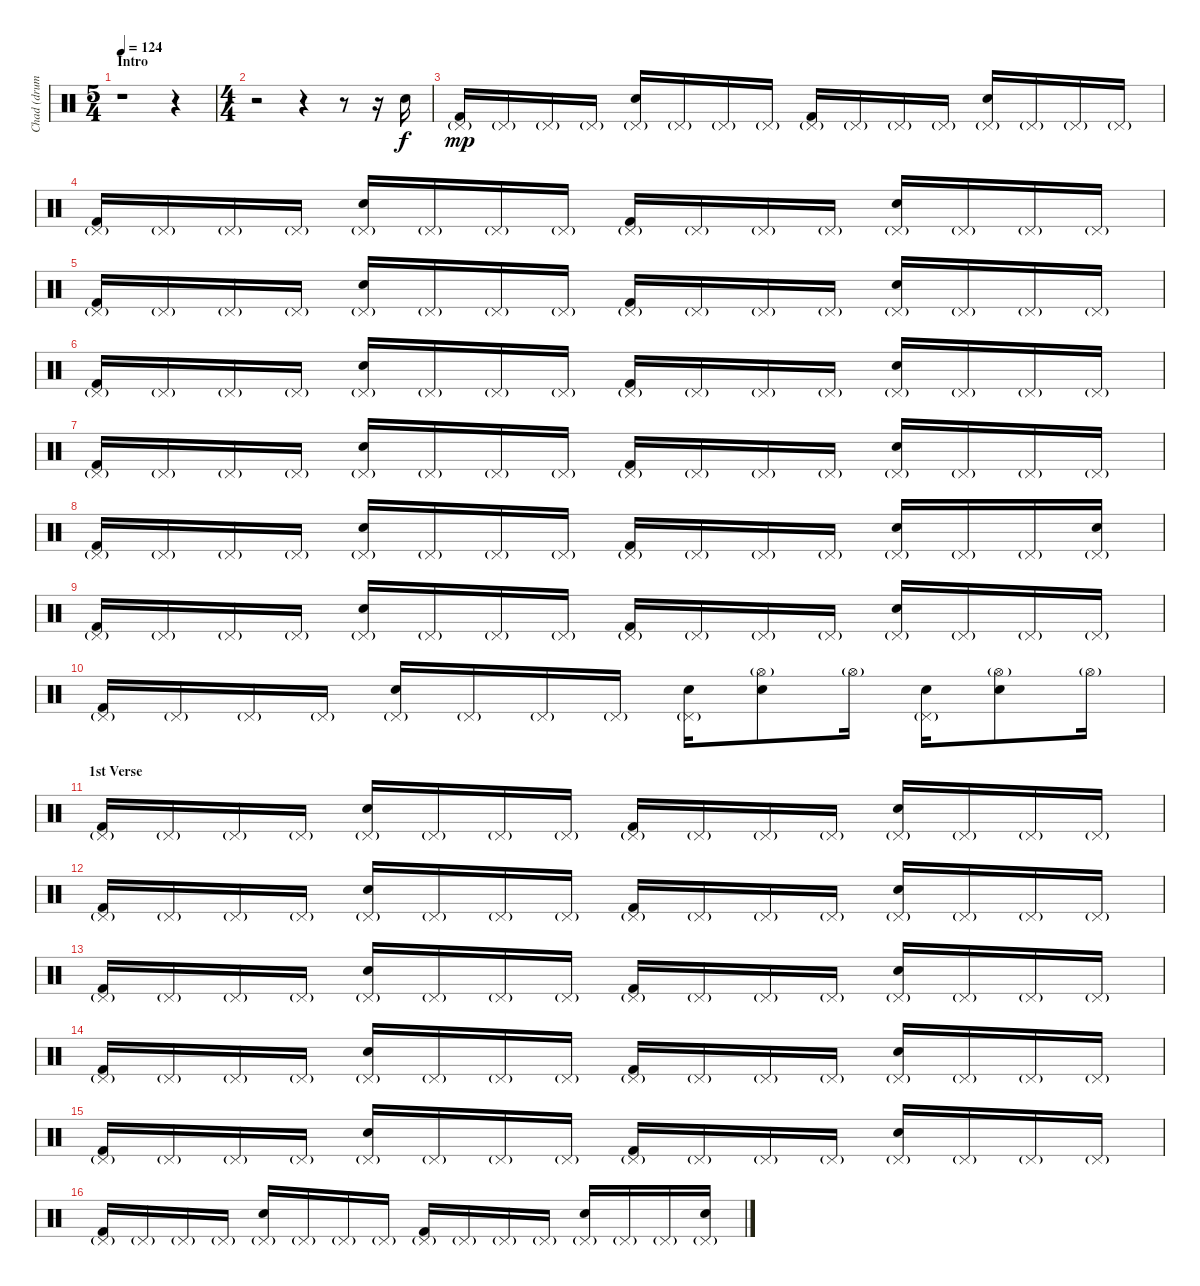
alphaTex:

\track ("Chad (drums)" "Chad (drum") {instrument percussion}
\staff {score}
\articulation defaults
\ts (5 4)
\section ("" "Intro")
\tempo 124
\tempo 110
\tempo 124
\clef neutral
\ks c
r.1{dy f} r.4 |
\ts (4 4)
r.2 r.4 r.8 r.16 "Electric Snare (hit)".16 |
("Kick (hit) 2" "Pedal Hi-Hat (hit)"{g}).16{dy mp} "Pedal Hi-Hat (hit)"{g}.16 "Pedal Hi-Hat (hit)"{g}.16 "Pedal Hi-Hat (hit)"{g}.16 ("Electric Snare (hit)" "Pedal Hi-Hat (hit)"{g}).16 "Pedal Hi-Hat (hit)"{g}.16 "Pedal Hi-Hat (hit)"{g}.16 "Pedal Hi-Hat (hit)"{g}.16 ("Kick (hit) 2" "Pedal Hi-Hat (hit)"{g}).16 "Pedal Hi-Hat (hit)"{g}.16 "Pedal Hi-Hat (hit)"{g}.16 "Pedal Hi-Hat (hit)"{g}.16 ("Electric Snare (hit)" "Pedal Hi-Hat (hit)"{g}).16 "Pedal Hi-Hat (hit)"{g}.16 "Pedal Hi-Hat (hit)"{g}.16 "Pedal Hi-Hat (hit)"{g}.16 |
("Kick (hit) 2" "Pedal Hi-Hat (hit)"{g}).16 "Pedal Hi-Hat (hit)"{g}.16 "Pedal Hi-Hat (hit)"{g}.16 "Pedal Hi-Hat (hit)"{g}.16 ("Electric Snare (hit)" "Pedal Hi-Hat (hit)"{g}).16 "Pedal Hi-Hat (hit)"{g}.16 "Pedal Hi-Hat (hit)"{g}.16 "Pedal Hi-Hat (hit)"{g}.16 ("Kick (hit) 2" "Pedal Hi-Hat (hit)"{g}).16 "Pedal Hi-Hat (hit)"{g}.16 "Pedal Hi-Hat (hit)"{g}.16 "Pedal Hi-Hat (hit)"{g}.16 ("Electric Snare (hit)" "Pedal Hi-Hat (hit)"{g}).16 "Pedal Hi-Hat (hit)"{g}.16 "Pedal Hi-Hat (hit)"{g}.16 "Pedal Hi-Hat (hit)"{g}.16 |
("Kick (hit) 2" "Pedal Hi-Hat (hit)"{g}).16 "Pedal Hi-Hat (hit)"{g}.16 "Pedal Hi-Hat (hit)"{g}.16 "Pedal Hi-Hat (hit)"{g}.16 ("Electric Snare (hit)" "Pedal Hi-Hat (hit)"{g}).16 "Pedal Hi-Hat (hit)"{g}.16 "Pedal Hi-Hat (hit)"{g}.16 "Pedal Hi-Hat (hit)"{g}.16 ("Kick (hit) 2" "Pedal Hi-Hat (hit)"{g}).16 "Pedal Hi-Hat (hit)"{g}.16 "Pedal Hi-Hat (hit)"{g}.16 "Pedal Hi-Hat (hit)"{g}.16 ("Electric Snare (hit)" "Pedal Hi-Hat (hit)"{g}).16 "Pedal Hi-Hat (hit)"{g}.16 "Pedal Hi-Hat (hit)"{g}.16 "Pedal Hi-Hat (hit)"{g}.16 |
("Kick (hit) 2" "Pedal Hi-Hat (hit)"{g}).16 "Pedal Hi-Hat (hit)"{g}.16 "Pedal Hi-Hat (hit)"{g}.16 "Pedal Hi-Hat (hit)"{g}.16 ("Electric Snare (hit)" "Pedal Hi-Hat (hit)"{g}).16 "Pedal Hi-Hat (hit)"{g}.16 "Pedal Hi-Hat (hit)"{g}.16 "Pedal Hi-Hat (hit)"{g}.16 ("Kick (hit) 2" "Pedal Hi-Hat (hit)"{g}).16 "Pedal Hi-Hat (hit)"{g}.16 "Pedal Hi-Hat (hit)"{g}.16 "Pedal Hi-Hat (hit)"{g}.16 ("Electric Snare (hit)" "Pedal Hi-Hat (hit)"{g}).16 "Pedal Hi-Hat (hit)"{g}.16 "Pedal Hi-Hat (hit)"{g}.16 "Pedal Hi-Hat (hit)"{g}.16 |
("Kick (hit) 2" "Pedal Hi-Hat (hit)"{g}).16 "Pedal Hi-Hat (hit)"{g}.16 "Pedal Hi-Hat (hit)"{g}.16 "Pedal Hi-Hat (hit)"{g}.16 ("Electric Snare (hit)" "Pedal Hi-Hat (hit)"{g}).16 "Pedal Hi-Hat (hit)"{g}.16 "Pedal Hi-Hat (hit)"{g}.16 "Pedal Hi-Hat (hit)"{g}.16 ("Kick (hit) 2" "Pedal Hi-Hat (hit)"{g}).16 "Pedal Hi-Hat (hit)"{g}.16 "Pedal Hi-Hat (hit)"{g}.16 "Pedal Hi-Hat (hit)"{g}.16 ("Electric Snare (hit)" "Pedal Hi-Hat (hit)"{g}).16 "Pedal Hi-Hat (hit)"{g}.16 "Pedal Hi-Hat (hit)"{g}.16 "Pedal Hi-Hat (hit)"{g}.16 |
("Kick (hit) 2" "Pedal Hi-Hat (hit)"{g}).16 "Pedal Hi-Hat (hit)"{g}.16 "Pedal Hi-Hat (hit)"{g}.16 "Pedal Hi-Hat (hit)"{g}.16 ("Electric Snare (hit)" "Pedal Hi-Hat (hit)"{g}).16 "Pedal Hi-Hat (hit)"{g}.16 "Pedal Hi-Hat (hit)"{g}.16 "Pedal Hi-Hat (hit)"{g}.16 ("Kick (hit) 2" "Pedal Hi-Hat (hit)"{g}).16 "Pedal Hi-Hat (hit)"{g}.16 "Pedal Hi-Hat (hit)"{g}.16 "Pedal Hi-Hat (hit)"{g}.16 ("Electric Snare (hit)" "Pedal Hi-Hat (hit)"{g}).16 "Pedal Hi-Hat (hit)"{g}.16 "Pedal Hi-Hat (hit)"{g}.16 ("Electric Snare (hit)" "Pedal Hi-Hat (hit)"{g}).16 |
("Kick (hit) 2" "Pedal Hi-Hat (hit)"{g}).16 "Pedal Hi-Hat (hit)"{g}.16 "Pedal Hi-Hat (hit)"{g}.16 "Pedal Hi-Hat (hit)"{g}.16 ("Electric Snare (hit)" "Pedal Hi-Hat (hit)"{g}).16 "Pedal Hi-Hat (hit)"{g}.16 "Pedal Hi-Hat (hit)"{g}.16 "Pedal Hi-Hat (hit)"{g}.16 ("Kick (hit) 2" "Pedal Hi-Hat (hit)"{g}).16 "Pedal Hi-Hat (hit)"{g}.16 "Pedal Hi-Hat (hit)"{g}.16 "Pedal Hi-Hat (hit)"{g}.16 ("Electric Snare (hit)" "Pedal Hi-Hat (hit)"{g}).16 "Pedal Hi-Hat (hit)"{g}.16 "Pedal Hi-Hat (hit)"{g}.16 "Pedal Hi-Hat (hit)"{g}.16 |
("Kick (hit) 2" "Pedal Hi-Hat (hit)"{g}).16 "Pedal Hi-Hat (hit)"{g}.16 "Pedal Hi-Hat (hit)"{g}.16 "Pedal Hi-Hat (hit)"{g}.16 ("Electric Snare (hit)" "Pedal Hi-Hat (hit)"{g}).16 "Pedal Hi-Hat (hit)"{g}.16 "Pedal Hi-Hat (hit)"{g}.16 "Pedal Hi-Hat (hit)"{g}.16 ("Electric Snare (hit)" "Pedal Hi-Hat (hit)"{g}).16 ("Electric Snare (hit)" "Hi-Hat (open)"{g}).8 "Hi-Hat (open)"{g}.16 ("Electric Snare (hit)" "Pedal Hi-Hat (hit)"{g}).16 ("Electric Snare (hit)" "Hi-Hat (open)"{g}).8 "Hi-Hat (open)"{g}.16 |
\section ("" "1st Verse")
("Kick (hit) 2" "Pedal Hi-Hat (hit)"{g}).16 "Pedal Hi-Hat (hit)"{g}.16 "Pedal Hi-Hat (hit)"{g}.16 "Pedal Hi-Hat (hit)"{g}.16 ("Electric Snare (hit)" "Pedal Hi-Hat (hit)"{g}).16 "Pedal Hi-Hat (hit)"{g}.16 "Pedal Hi-Hat (hit)"{g}.16 "Pedal Hi-Hat (hit)"{g}.16 ("Kick (hit) 2" "Pedal Hi-Hat (hit)"{g}).16 "Pedal Hi-Hat (hit)"{g}.16 "Pedal Hi-Hat (hit)"{g}.16 "Pedal Hi-Hat (hit)"{g}.16 ("Electric Snare (hit)" "Pedal Hi-Hat (hit)"{g}).16 "Pedal Hi-Hat (hit)"{g}.16 "Pedal Hi-Hat (hit)"{g}.16 "Pedal Hi-Hat (hit)"{g}.16 |
("Kick (hit) 2" "Pedal Hi-Hat (hit)"{g}).16 "Pedal Hi-Hat (hit)"{g}.16 "Pedal Hi-Hat (hit)"{g}.16 "Pedal Hi-Hat (hit)"{g}.16 ("Electric Snare (hit)" "Pedal Hi-Hat (hit)"{g}).16 "Pedal Hi-Hat (hit)"{g}.16 "Pedal Hi-Hat (hit)"{g}.16 "Pedal Hi-Hat (hit)"{g}.16 ("Kick (hit) 2" "Pedal Hi-Hat (hit)"{g}).16 "Pedal Hi-Hat (hit)"{g}.16 "Pedal Hi-Hat (hit)"{g}.16 "Pedal Hi-Hat (hit)"{g}.16 ("Electric Snare (hit)" "Pedal Hi-Hat (hit)"{g}).16 "Pedal Hi-Hat (hit)"{g}.16 "Pedal Hi-Hat (hit)"{g}.16 "Pedal Hi-Hat (hit)"{g}.16 |
("Kick (hit) 2" "Pedal Hi-Hat (hit)"{g}).16 "Pedal Hi-Hat (hit)"{g}.16 "Pedal Hi-Hat (hit)"{g}.16 "Pedal Hi-Hat (hit)"{g}.16 ("Electric Snare (hit)" "Pedal Hi-Hat (hit)"{g}).16 "Pedal Hi-Hat (hit)"{g}.16 "Pedal Hi-Hat (hit)"{g}.16 "Pedal Hi-Hat (hit)"{g}.16 ("Kick (hit) 2" "Pedal Hi-Hat (hit)"{g}).16 "Pedal Hi-Hat (hit)"{g}.16 "Pedal Hi-Hat (hit)"{g}.16 "Pedal Hi-Hat (hit)"{g}.16 ("Electric Snare (hit)" "Pedal Hi-Hat (hit)"{g}).16 "Pedal Hi-Hat (hit)"{g}.16 "Pedal Hi-Hat (hit)"{g}.16 "Pedal Hi-Hat (hit)"{g}.16 |
("Kick (hit) 2" "Pedal Hi-Hat (hit)"{g}).16 "Pedal Hi-Hat (hit)"{g}.16 "Pedal Hi-Hat (hit)"{g}.16 "Pedal Hi-Hat (hit)"{g}.16 ("Electric Snare (hit)" "Pedal Hi-Hat (hit)"{g}).16 "Pedal Hi-Hat (hit)"{g}.16 "Pedal Hi-Hat (hit)"{g}.16 "Pedal Hi-Hat (hit)"{g}.16 ("Kick (hit) 2" "Pedal Hi-Hat (hit)"{g}).16 "Pedal Hi-Hat (hit)"{g}.16 "Pedal Hi-Hat (hit)"{g}.16 "Pedal Hi-Hat (hit)"{g}.16 ("Electric Snare (hit)" "Pedal Hi-Hat (hit)"{g}).16 "Pedal Hi-Hat (hit)"{g}.16 "Pedal Hi-Hat (hit)"{g}.16 "Pedal Hi-Hat (hit)"{g}.16 |
("Kick (hit) 2" "Pedal Hi-Hat (hit)"{g}).16 "Pedal Hi-Hat (hit)"{g}.16 "Pedal Hi-Hat (hit)"{g}.16 "Pedal Hi-Hat (hit)"{g}.16 ("Electric Snare (hit)" "Pedal Hi-Hat (hit)"{g}).16 "Pedal Hi-Hat (hit)"{g}.16 "Pedal Hi-Hat (hit)"{g}.16 "Pedal Hi-Hat (hit)"{g}.16 ("Kick (hit) 2" "Pedal Hi-Hat (hit)"{g}).16 "Pedal Hi-Hat (hit)"{g}.16 "Pedal Hi-Hat (hit)"{g}.16 "Pedal Hi-Hat (hit)"{g}.16 ("Electric Snare (hit)" "Pedal Hi-Hat (hit)"{g}).16 "Pedal Hi-Hat (hit)"{g}.16 "Pedal Hi-Hat (hit)"{g}.16 "Pedal Hi-Hat (hit)"{g}.16 |
("Kick (hit) 2" "Pedal Hi-Hat (hit)"{g}).16 "Pedal Hi-Hat (hit)"{g}.16 "Pedal Hi-Hat (hit)"{g}.16 "Pedal Hi-Hat (hit)"{g}.16 ("Electric Snare (hit)" "Pedal Hi-Hat (hit)"{g}).16 "Pedal Hi-Hat (hit)"{g}.16 "Pedal Hi-Hat (hit)"{g}.16 "Pedal Hi-Hat (hit)"{g}.16 ("Kick (hit) 2" "Pedal Hi-Hat (hit)"{g}).16 "Pedal Hi-Hat (hit)"{g}.16 "Pedal Hi-Hat (hit)"{g}.16 "Pedal Hi-Hat (hit)"{g}.16 ("Electric Snare (hit)" "Pedal Hi-Hat (hit)"{g}).16 "Pedal Hi-Hat (hit)"{g}.16 "Pedal Hi-Hat (hit)"{g}.16 ("Electric Snare (hit)" "Pedal Hi-Hat (hit)"{g}).16
